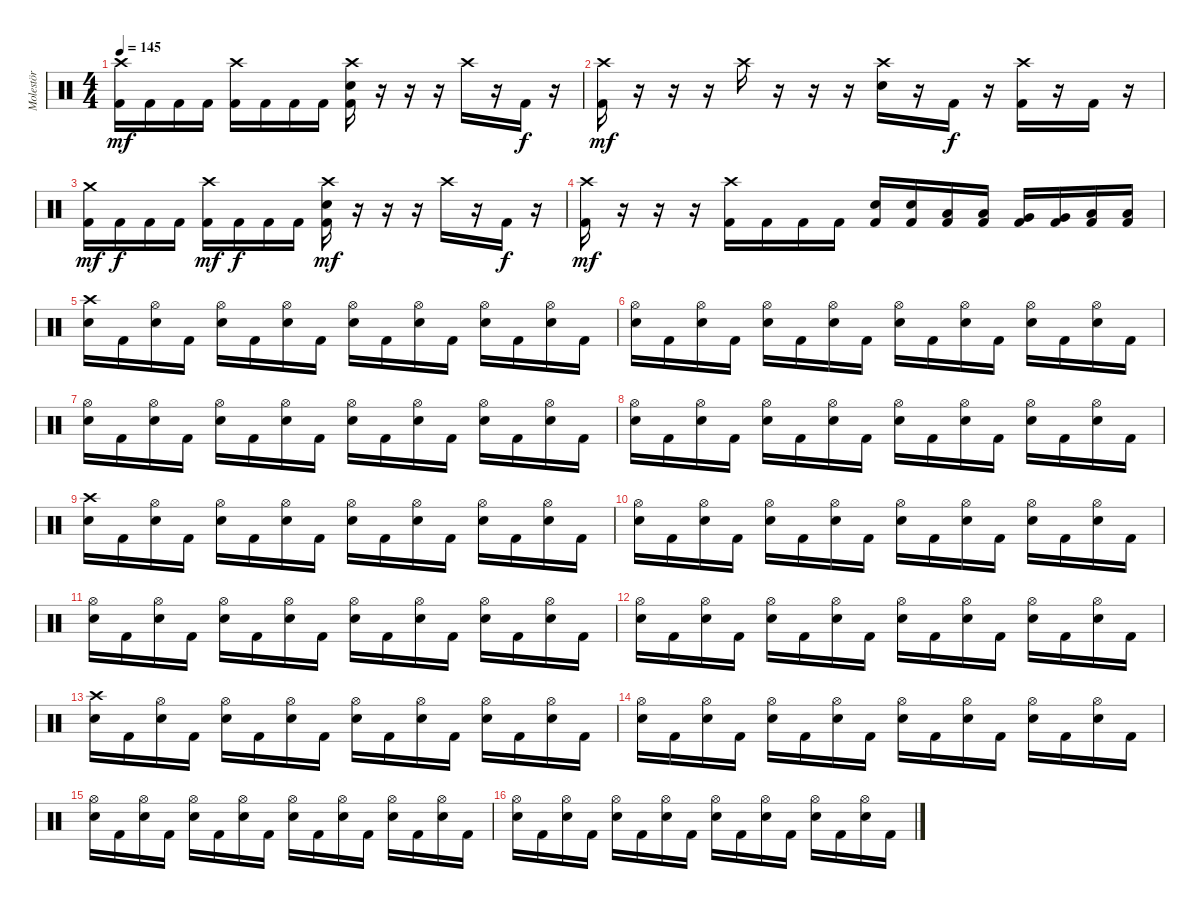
\track ("Molestör" "Molestör") {instrument percussion}
\staff {score}
\articulation defaults
\ts (4 4)
\tempo 145
\clef neutral
\ks c
("Crash high (hit)" "Kick (hit) 2").16{dy mf} "Kick (hit) 2".16 "Kick (hit) 2".16 "Kick (hit) 2".16 ("Crash high (hit)" "Kick (hit) 2").16 "Kick (hit) 2".16 "Kick (hit) 2".16 "Kick (hit) 2".16 ("Crash high (hit)" "Electric Snare (hit)" "Kick (hit) 2").16 r.16 r.16 r.16 "Crash high (hit)".16 r.16 "Kick (hit) 2".16{dy f} r.16 |
("Crash high (hit)" "Kick (hit) 2").16{dy mf} r.16 r.16 r.16 "Crash high (hit)".16 r.16 r.16 r.16 ("Crash high (hit)" "Electric Snare (hit)").16 r.16 "Kick (hit) 2".16{dy f} r.16 ("Crash high (hit)" "Kick (hit) 2").16 r.16 "Kick (hit) 2".16 r.16 |
("Crash medium (hit)" "Kick (hit) 2").16{dy mf} "Kick (hit) 2".16{dy f} "Kick (hit) 2".16 "Kick (hit) 2".16 ("Crash high (hit)" "Kick (hit) 2").16{dy mf} "Kick (hit) 2".16{dy f} "Kick (hit) 2".16 "Kick (hit) 2".16 ("Crash high (hit)" "Electric Snare (hit)" "Kick (hit) 2").16{dy mf} r.16 r.16 r.16 "Crash high (hit)".16 r.16 "Kick (hit) 2".16{dy f} r.16 |
("Crash high (hit)" "Kick (hit) 2").16{dy mf} r.16 r.16 r.16 ("Crash high (hit)" "Kick (hit) 2").16 "Kick (hit) 2".16 "Kick (hit) 2".16 "Kick (hit) 2".16 ("Electric Snare (hit)" "Kick (hit) 2").16 ("Electric Snare (hit)" "Kick (hit) 2").16 ("Low Tom (hit)" "Kick (hit) 2").16 ("Low Tom (hit)" "Kick (hit) 2").16 ("Very Low Tom (hit)" "Kick (hit) 2").16 ("Very Low Tom (hit)" "Kick (hit) 2").16 ("Low Floor Tom (hit)" "Kick (hit) 2").16 ("Low Floor Tom (hit)" "Kick (hit) 2").16 |
("Crash high (hit)" "Electric Snare (hit)").16 "Kick (hit) 2".16 ("Hi-Hat (open)" "Electric Snare (hit)").16 "Kick (hit) 2".16 ("Hi-Hat (open)" "Electric Snare (hit)").16 "Kick (hit) 2".16 ("Hi-Hat (open)" "Electric Snare (hit)").16 "Kick (hit) 2".16 ("Hi-Hat (open)" "Electric Snare (hit)").16 "Kick (hit) 2".16 ("Hi-Hat (open)" "Electric Snare (hit)").16 "Kick (hit) 2".16 ("Hi-Hat (open)" "Electric Snare (hit)").16 "Kick (hit) 2".16 ("Hi-Hat (open)" "Electric Snare (hit)").16 "Kick (hit) 2".16 |
("Hi-Hat (open)" "Electric Snare (hit)").16 "Kick (hit) 2".16 ("Hi-Hat (open)" "Electric Snare (hit)").16 "Kick (hit) 2".16 ("Hi-Hat (open)" "Electric Snare (hit)").16 "Kick (hit) 2".16 ("Hi-Hat (open)" "Electric Snare (hit)").16 "Kick (hit) 2".16 ("Hi-Hat (open)" "Electric Snare (hit)").16 "Kick (hit) 2".16 ("Hi-Hat (open)" "Electric Snare (hit)").16 "Kick (hit) 2".16 ("Hi-Hat (open)" "Electric Snare (hit)").16 "Kick (hit) 2".16 ("Hi-Hat (open)" "Electric Snare (hit)").16 "Kick (hit) 2".16 |
("Hi-Hat (open)" "Electric Snare (hit)").16 "Kick (hit) 2".16 ("Hi-Hat (open)" "Electric Snare (hit)").16 "Kick (hit) 2".16 ("Hi-Hat (open)" "Electric Snare (hit)").16 "Kick (hit) 2".16 ("Hi-Hat (open)" "Electric Snare (hit)").16 "Kick (hit) 2".16 ("Hi-Hat (open)" "Electric Snare (hit)").16 "Kick (hit) 2".16 ("Hi-Hat (open)" "Electric Snare (hit)").16 "Kick (hit) 2".16 ("Hi-Hat (open)" "Electric Snare (hit)").16 "Kick (hit) 2".16 ("Hi-Hat (open)" "Electric Snare (hit)").16 "Kick (hit) 2".16 |
("Hi-Hat (open)" "Electric Snare (hit)").16 "Kick (hit) 2".16 ("Hi-Hat (open)" "Electric Snare (hit)").16 "Kick (hit) 2".16 ("Hi-Hat (open)" "Electric Snare (hit)").16 "Kick (hit) 2".16 ("Hi-Hat (open)" "Electric Snare (hit)").16 "Kick (hit) 2".16 ("Hi-Hat (open)" "Electric Snare (hit)").16 "Kick (hit) 2".16 ("Hi-Hat (open)" "Electric Snare (hit)").16 "Kick (hit) 2".16 ("Hi-Hat (open)" "Electric Snare (hit)").16 "Kick (hit) 2".16 ("Hi-Hat (open)" "Electric Snare (hit)").16 "Kick (hit) 2".16 |
("Crash high (hit)" "Electric Snare (hit)").16 "Kick (hit) 2".16 ("Hi-Hat (open)" "Electric Snare (hit)").16 "Kick (hit) 2".16 ("Hi-Hat (open)" "Electric Snare (hit)").16 "Kick (hit) 2".16 ("Hi-Hat (open)" "Electric Snare (hit)").16 "Kick (hit) 2".16 ("Hi-Hat (open)" "Electric Snare (hit)").16 "Kick (hit) 2".16 ("Hi-Hat (open)" "Electric Snare (hit)").16 "Kick (hit) 2".16 ("Hi-Hat (open)" "Electric Snare (hit)").16 "Kick (hit) 2".16 ("Hi-Hat (open)" "Electric Snare (hit)").16 "Kick (hit) 2".16 |
("Hi-Hat (open)" "Electric Snare (hit)").16 "Kick (hit) 2".16 ("Hi-Hat (open)" "Electric Snare (hit)").16 "Kick (hit) 2".16 ("Hi-Hat (open)" "Electric Snare (hit)").16 "Kick (hit) 2".16 ("Hi-Hat (open)" "Electric Snare (hit)").16 "Kick (hit) 2".16 ("Hi-Hat (open)" "Electric Snare (hit)").16 "Kick (hit) 2".16 ("Hi-Hat (open)" "Electric Snare (hit)").16 "Kick (hit) 2".16 ("Hi-Hat (open)" "Electric Snare (hit)").16 "Kick (hit) 2".16 ("Hi-Hat (open)" "Electric Snare (hit)").16 "Kick (hit) 2".16 |
("Hi-Hat (open)" "Electric Snare (hit)").16 "Kick (hit) 2".16 ("Hi-Hat (open)" "Electric Snare (hit)").16 "Kick (hit) 2".16 ("Hi-Hat (open)" "Electric Snare (hit)").16 "Kick (hit) 2".16 ("Hi-Hat (open)" "Electric Snare (hit)").16 "Kick (hit) 2".16 ("Hi-Hat (open)" "Electric Snare (hit)").16 "Kick (hit) 2".16 ("Hi-Hat (open)" "Electric Snare (hit)").16 "Kick (hit) 2".16 ("Hi-Hat (open)" "Electric Snare (hit)").16 "Kick (hit) 2".16 ("Hi-Hat (open)" "Electric Snare (hit)").16 "Kick (hit) 2".16 |
("Hi-Hat (open)" "Electric Snare (hit)").16 "Kick (hit) 2".16 ("Hi-Hat (open)" "Electric Snare (hit)").16 "Kick (hit) 2".16 ("Hi-Hat (open)" "Electric Snare (hit)").16 "Kick (hit) 2".16 ("Hi-Hat (open)" "Electric Snare (hit)").16 "Kick (hit) 2".16 ("Hi-Hat (open)" "Electric Snare (hit)").16 "Kick (hit) 2".16 ("Hi-Hat (open)" "Electric Snare (hit)").16 "Kick (hit) 2".16 ("Hi-Hat (open)" "Electric Snare (hit)").16 "Kick (hit) 2".16 ("Hi-Hat (open)" "Electric Snare (hit)").16 "Kick (hit) 2".16 |
("Crash high (hit)" "Electric Snare (hit)").16 "Kick (hit) 2".16 ("Hi-Hat (open)" "Electric Snare (hit)").16 "Kick (hit) 2".16 ("Hi-Hat (open)" "Electric Snare (hit)").16 "Kick (hit) 2".16 ("Hi-Hat (open)" "Electric Snare (hit)").16 "Kick (hit) 2".16 ("Hi-Hat (open)" "Electric Snare (hit)").16 "Kick (hit) 2".16 ("Hi-Hat (open)" "Electric Snare (hit)").16 "Kick (hit) 2".16 ("Hi-Hat (open)" "Electric Snare (hit)").16 "Kick (hit) 2".16 ("Hi-Hat (open)" "Electric Snare (hit)").16 "Kick (hit) 2".16 |
("Hi-Hat (open)" "Electric Snare (hit)").16 "Kick (hit) 2".16 ("Hi-Hat (open)" "Electric Snare (hit)").16 "Kick (hit) 2".16 ("Hi-Hat (open)" "Electric Snare (hit)").16 "Kick (hit) 2".16 ("Hi-Hat (open)" "Electric Snare (hit)").16 "Kick (hit) 2".16 ("Hi-Hat (open)" "Electric Snare (hit)").16 "Kick (hit) 2".16 ("Hi-Hat (open)" "Electric Snare (hit)").16 "Kick (hit) 2".16 ("Hi-Hat (open)" "Electric Snare (hit)").16 "Kick (hit) 2".16 ("Hi-Hat (open)" "Electric Snare (hit)").16 "Kick (hit) 2".16 |
("Hi-Hat (open)" "Electric Snare (hit)").16 "Kick (hit) 2".16 ("Hi-Hat (open)" "Electric Snare (hit)").16 "Kick (hit) 2".16 ("Hi-Hat (open)" "Electric Snare (hit)").16 "Kick (hit) 2".16 ("Hi-Hat (open)" "Electric Snare (hit)").16 "Kick (hit) 2".16 ("Hi-Hat (open)" "Electric Snare (hit)").16 "Kick (hit) 2".16 ("Hi-Hat (open)" "Electric Snare (hit)").16 "Kick (hit) 2".16 ("Hi-Hat (open)" "Electric Snare (hit)").16 "Kick (hit) 2".16 ("Hi-Hat (open)" "Electric Snare (hit)").16 "Kick (hit) 2".16 |
("Hi-Hat (open)" "Electric Snare (hit)").16 "Kick (hit) 2".16 ("Hi-Hat (open)" "Electric Snare (hit)").16 "Kick (hit) 2".16 ("Hi-Hat (open)" "Electric Snare (hit)").16 "Kick (hit) 2".16 ("Hi-Hat (open)" "Electric Snare (hit)").16 "Kick (hit) 2".16 ("Hi-Hat (open)" "Electric Snare (hit)").16 "Kick (hit) 2".16 ("Hi-Hat (open)" "Electric Snare (hit)").16 "Kick (hit) 2".16 ("Hi-Hat (open)" "Electric Snare (hit)").16 "Kick (hit) 2".16 ("Hi-Hat (open)" "Electric Snare (hit)").16 "Kick (hit) 2".16
